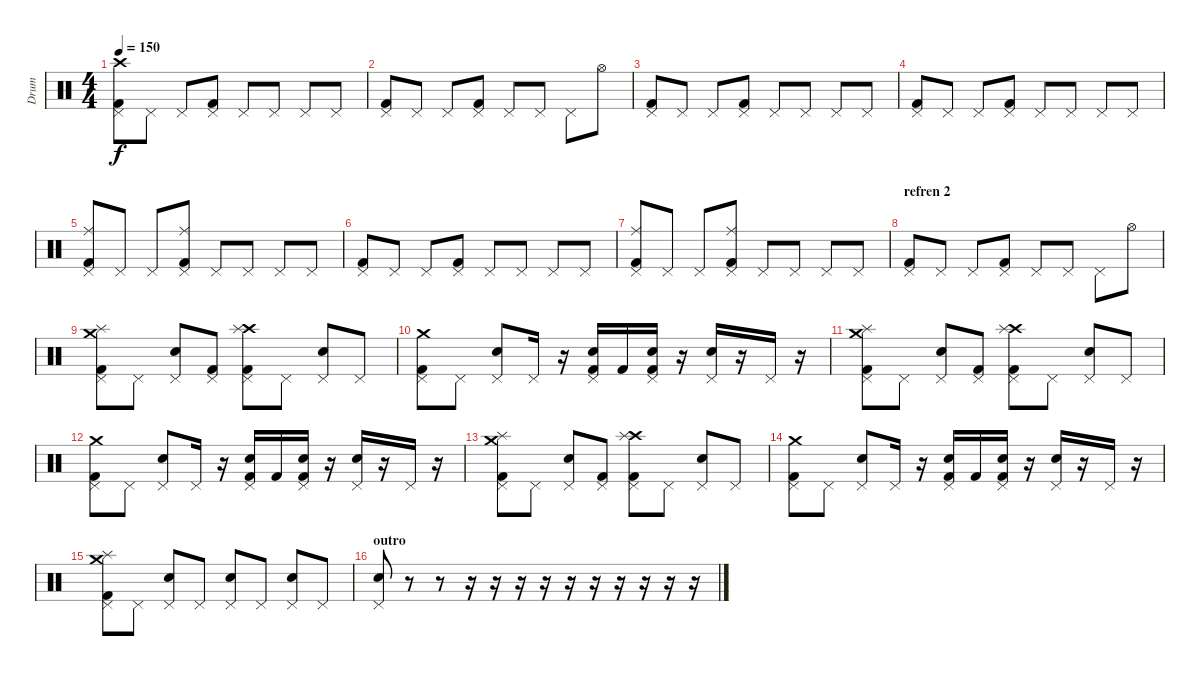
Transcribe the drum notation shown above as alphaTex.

\track ("Drum" "Drum") {instrument percussion}
\staff {score}
\articulation defaults
\ts (4 4)
\tempo 150
\clef neutral
\ks c
("Crash high (hit)" "Kick (hit) 2" "Pedal Hi-Hat (hit)").8{dy f} "Pedal Hi-Hat (hit)".8 "Pedal Hi-Hat (hit)".8 ("Kick (hit) 2" "Pedal Hi-Hat (hit)").8 "Pedal Hi-Hat (hit)".8 "Pedal Hi-Hat (hit)".8 "Pedal Hi-Hat (hit)".8 "Pedal Hi-Hat (hit)".8 |
("Kick (hit) 2" "Pedal Hi-Hat (hit)").8 "Pedal Hi-Hat (hit)".8 "Pedal Hi-Hat (hit)".8 ("Kick (hit) 2" "Pedal Hi-Hat (hit)").8 "Pedal Hi-Hat (hit)".8 "Pedal Hi-Hat (hit)".8 "Pedal Hi-Hat (hit)".8 "Hi-Hat (open)".8 |
("Kick (hit) 2" "Pedal Hi-Hat (hit)").8 "Pedal Hi-Hat (hit)".8 "Pedal Hi-Hat (hit)".8 ("Kick (hit) 2" "Pedal Hi-Hat (hit)").8 "Pedal Hi-Hat (hit)".8 "Pedal Hi-Hat (hit)".8 "Pedal Hi-Hat (hit)".8 "Pedal Hi-Hat (hit)".8 |
("Kick (hit) 2" "Pedal Hi-Hat (hit)").8 "Pedal Hi-Hat (hit)".8 "Pedal Hi-Hat (hit)".8 ("Kick (hit) 2" "Pedal Hi-Hat (hit)").8 "Pedal Hi-Hat (hit)".8 "Pedal Hi-Hat (hit)".8 "Pedal Hi-Hat (hit)".8 "Pedal Hi-Hat (hit)".8 |
("Ride (middle)" "Kick (hit) 2" "Pedal Hi-Hat (hit)").8 "Pedal Hi-Hat (hit)".8 "Pedal Hi-Hat (hit)".8 ("Ride (middle)" "Kick (hit) 2" "Pedal Hi-Hat (hit)").8 "Pedal Hi-Hat (hit)".8 "Pedal Hi-Hat (hit)".8 "Pedal Hi-Hat (hit)".8 "Pedal Hi-Hat (hit)".8 |
("Kick (hit) 2" "Pedal Hi-Hat (hit)").8 "Pedal Hi-Hat (hit)".8 "Pedal Hi-Hat (hit)".8 ("Kick (hit) 2" "Pedal Hi-Hat (hit)").8 "Pedal Hi-Hat (hit)".8 "Pedal Hi-Hat (hit)".8 "Pedal Hi-Hat (hit)".8 "Pedal Hi-Hat (hit)".8 |
("Ride (middle)" "Kick (hit) 2" "Pedal Hi-Hat (hit)").8 "Pedal Hi-Hat (hit)".8 "Pedal Hi-Hat (hit)".8 ("Ride (middle)" "Kick (hit) 2" "Pedal Hi-Hat (hit)").8 "Pedal Hi-Hat (hit)".8 "Pedal Hi-Hat (hit)".8 "Pedal Hi-Hat (hit)".8 "Pedal Hi-Hat (hit)".8 |
\section ("" "refren 2")
("Kick (hit) 2" "Pedal Hi-Hat (hit)").8 "Pedal Hi-Hat (hit)".8 "Pedal Hi-Hat (hit)".8 ("Kick (hit) 2" "Pedal Hi-Hat (hit)").8 "Pedal Hi-Hat (hit)".8 "Pedal Hi-Hat (hit)".8 "Pedal Hi-Hat (hit)".8 "Hi-Hat (open)".8 |
("Crash medium (hit)" "Splash (hit)" "Kick (hit) 2" "Pedal Hi-Hat (hit)").8 "Pedal Hi-Hat (hit)".8 ("Electric Snare (hit)" "Pedal Hi-Hat (hit)").8 ("Kick (hit) 2" "Pedal Hi-Hat (hit)").8 ("Crash high (hit)" "Splash (hit)" "Kick (hit) 2" "Pedal Hi-Hat (hit)").8 "Pedal Hi-Hat (hit)".8 ("Electric Snare (hit)" "Pedal Hi-Hat (hit)").8 "Pedal Hi-Hat (hit)".8 |
("Crash medium (hit)" "Kick (hit) 2" "Pedal Hi-Hat (hit)").8 "Pedal Hi-Hat (hit)".8 ("Electric Snare (hit)" "Pedal Hi-Hat (hit)").8 "Pedal Hi-Hat (hit)".16 r.16 ("Snare (hit) 2" "Kick (hit) 2" "Pedal Hi-Hat (hit)").16 "Kick (hit) 2".16 ("Snare (hit) 2" "Kick (hit) 2" "Pedal Hi-Hat (hit)").16 r.16 ("Electric Snare (hit)" "Pedal Hi-Hat (hit)").16 r.16 "Pedal Hi-Hat (hit)".16 r.16 |
("Crash medium (hit)" "Splash (hit)" "Kick (hit) 2" "Pedal Hi-Hat (hit)").8 "Pedal Hi-Hat (hit)".8 ("Electric Snare (hit)" "Pedal Hi-Hat (hit)").8 ("Kick (hit) 2" "Pedal Hi-Hat (hit)").8 ("Crash high (hit)" "Splash (hit)" "Kick (hit) 2" "Pedal Hi-Hat (hit)").8 "Pedal Hi-Hat (hit)".8 ("Electric Snare (hit)" "Pedal Hi-Hat (hit)").8 "Pedal Hi-Hat (hit)".8 |
("Crash medium (hit)" "Kick (hit) 2" "Pedal Hi-Hat (hit)").8 "Pedal Hi-Hat (hit)".8 ("Electric Snare (hit)" "Pedal Hi-Hat (hit)").8 "Pedal Hi-Hat (hit)".16 r.16 ("Snare (hit) 2" "Kick (hit) 2" "Pedal Hi-Hat (hit)").16 "Kick (hit) 2".16 ("Snare (hit) 2" "Kick (hit) 2" "Pedal Hi-Hat (hit)").16 r.16 ("Electric Snare (hit)" "Pedal Hi-Hat (hit)").16 r.16 "Pedal Hi-Hat (hit)".16 r.16 |
("Crash medium (hit)" "Splash (hit)" "Kick (hit) 2" "Pedal Hi-Hat (hit)").8 "Pedal Hi-Hat (hit)".8 ("Electric Snare (hit)" "Pedal Hi-Hat (hit)").8 ("Kick (hit) 2" "Pedal Hi-Hat (hit)").8 ("Crash high (hit)" "Splash (hit)" "Kick (hit) 2" "Pedal Hi-Hat (hit)").8 "Pedal Hi-Hat (hit)".8 ("Electric Snare (hit)" "Pedal Hi-Hat (hit)").8 "Pedal Hi-Hat (hit)".8 |
("Crash medium (hit)" "Kick (hit) 2" "Pedal Hi-Hat (hit)").8 "Pedal Hi-Hat (hit)".8 ("Electric Snare (hit)" "Pedal Hi-Hat (hit)").8 "Pedal Hi-Hat (hit)".16 r.16 ("Snare (hit) 2" "Kick (hit) 2" "Pedal Hi-Hat (hit)").16 "Kick (hit) 2".16 ("Snare (hit) 2" "Kick (hit) 2" "Pedal Hi-Hat (hit)").16 r.16 ("Electric Snare (hit)" "Pedal Hi-Hat (hit)").16 r.16 "Pedal Hi-Hat (hit)".16 r.16 |
("Crash medium (hit)" "Splash (hit)" "Kick (hit) 2" "Pedal Hi-Hat (hit)").8 "Pedal Hi-Hat (hit)".8 ("Electric Snare (hit)" "Pedal Hi-Hat (hit)").8 "Pedal Hi-Hat (hit)".8 ("Electric Snare (hit)" "Pedal Hi-Hat (hit)").8 "Pedal Hi-Hat (hit)".8 ("Electric Snare (hit)" "Pedal Hi-Hat (hit)").8 "Pedal Hi-Hat (hit)".8 |
\section ("" "outro")
("Electric Snare (hit)" "Pedal Hi-Hat (hit)").8 r.8 r.8 r.16 r.16 r.16 r.16 r.16 r.16 r.16 r.16 r.16 r.16
